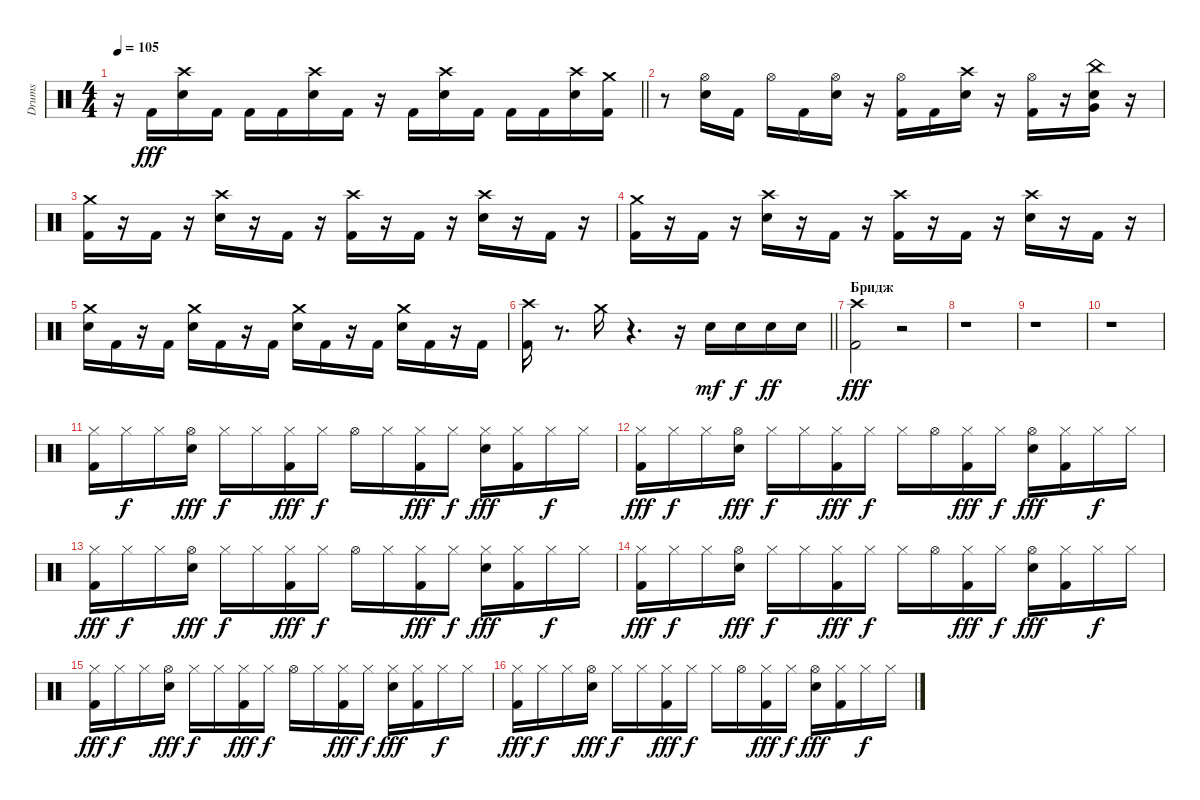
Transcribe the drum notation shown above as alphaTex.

\track ("Drums" "Drums") {instrument percussion}
\staff {score}
\articulation defaults
\ts (4 4)
\tempo 105
\clef neutral
\barLineRight lightlight
\ks c
r.16{dy fff} "Kick (hit) 2".16 ("Electric Snare (hit)" "Crash high (hit)").16 "Kick (hit) 2".16 "Kick (hit) 2".16 "Kick (hit) 2".16 ("Electric Snare (hit)" "Crash high (hit)").16 "Kick (hit) 2".16 r.16 "Kick (hit) 2".16 ("Electric Snare (hit)" "Crash high (hit)").16 "Kick (hit) 2".16 "Kick (hit) 2".16 "Kick (hit) 2".16 ("Electric Snare (hit)" "Crash high (hit)").16 ("Kick (hit) 2" "Crash medium (hit)").16 |
r.8 ("Electric Snare (hit)" "Hi-Hat (open)").16 "Kick (hit) 2".16 "Hi-Hat (open)".16 "Kick (hit) 2".16 ("Electric Snare (hit)" "Hi-Hat (open)").16 r.16 ("Kick (hit) 2" "Hi-Hat (open)").16 "Kick (hit) 2".16 ("Electric Snare (hit)" "Crash high (hit)").16 r.16 ("Kick (hit) 2" "Hi-Hat (open)").16 r.16 ("Electric Snare (hit)" "Very Low Tom (hit)" "China (hit)").16 r.16 |
("Kick (hit) 2" "Crash medium (hit)").16 r.16 "Kick (hit) 2".16 r.16 ("Electric Snare (hit)" "Crash high (hit)").16 r.16 "Kick (hit) 2".16 r.16 ("Kick (hit) 2" "Crash high (hit)").16 r.16 "Kick (hit) 2".16 r.16 ("Electric Snare (hit)" "Crash high (hit)").16 r.16 "Kick (hit) 2".16 r.16 |
("Kick (hit) 2" "Crash medium (hit)").16 r.16 "Kick (hit) 2".16 r.16 ("Electric Snare (hit)" "Crash high (hit)").16 r.16 "Kick (hit) 2".16 r.16 ("Kick (hit) 2" "Crash high (hit)").16 r.16 "Kick (hit) 2".16 r.16 ("Electric Snare (hit)" "Crash high (hit)").16 r.16 "Kick (hit) 2".16 r.16 |
("Electric Snare (hit)" "Crash medium (hit)").16 "Kick (hit) 2".16 r.16 "Kick (hit) 2".16 ("Electric Snare (hit)" "Crash medium (hit)").16 "Kick (hit) 2".16 r.16 "Kick (hit) 2".16 ("Electric Snare (hit)" "Crash medium (hit)").16 "Kick (hit) 2".16 r.16 "Kick (hit) 2".16 ("Electric Snare (hit)" "Crash medium (hit)").16 "Kick (hit) 2".16 r.16 "Kick (hit) 2".16 |
\barLineRight lightlight
("Kick (hit) 2" "Crash high (hit)").16 r.8{d} "Crash medium (hit)".16 r.4{d} r.16 "Electric Snare (hit)".16{dy mf} "Electric Snare (hit)".16{dy f} "Electric Snare (hit)".16{dy ff} "Electric Snare (hit)".16 |
\section ("" "Бридж")
("Kick (hit) 2" "Crash high (hit)").2{dy fff} r.2 |
r.1 |
r.1 |
r.1 |
("Kick (hit) 2" "Hi-Hat (closed)").16 "Hi-Hat (closed)".16{dy f} "Hi-Hat (closed)".16 ("Electric Snare (hit)" "Hi-Hat (open)").16{dy fff} "Hi-Hat (closed)".16{dy f} "Hi-Hat (closed)".16 ("Kick (hit) 2" "Hi-Hat (closed)").16{dy fff} "Hi-Hat (closed)".16{dy f} "Hi-Hat (open)".16 "Hi-Hat (closed)".16 ("Kick (hit) 2" "Hi-Hat (closed)").16{dy fff} "Hi-Hat (closed)".16{dy f} ("Electric Snare (hit)" "Hi-Hat (closed)").16{dy fff} ("Kick (hit) 2" "Hi-Hat (closed)").16 "Hi-Hat (closed)".16{dy f} "Hi-Hat (closed)".16 |
("Kick (hit) 2" "Hi-Hat (closed)").16{dy fff} "Hi-Hat (closed)".16{dy f} "Hi-Hat (closed)".16 ("Electric Snare (hit)" "Hi-Hat (open)").16{dy fff} "Hi-Hat (closed)".16{dy f} "Hi-Hat (closed)".16 ("Kick (hit) 2" "Hi-Hat (closed)").16{dy fff} "Hi-Hat (closed)".16{dy f} "Hi-Hat (closed)".16 "Hi-Hat (open)".16 ("Kick (hit) 2" "Hi-Hat (closed)").16{dy fff} "Hi-Hat (closed)".16{dy f} ("Electric Snare (hit)" "Hi-Hat (open)").16{dy fff} ("Kick (hit) 2" "Hi-Hat (closed)").16 "Hi-Hat (closed)".16{dy f} "Hi-Hat (closed)".16 |
("Kick (hit) 2" "Hi-Hat (closed)").16{dy fff} "Hi-Hat (closed)".16{dy f} "Hi-Hat (closed)".16 ("Electric Snare (hit)" "Hi-Hat (open)").16{dy fff} "Hi-Hat (closed)".16{dy f} "Hi-Hat (closed)".16 ("Kick (hit) 2" "Hi-Hat (closed)").16{dy fff} "Hi-Hat (closed)".16{dy f} "Hi-Hat (open)".16 "Hi-Hat (closed)".16 ("Kick (hit) 2" "Hi-Hat (closed)").16{dy fff} "Hi-Hat (closed)".16{dy f} ("Electric Snare (hit)" "Hi-Hat (closed)").16{dy fff} ("Kick (hit) 2" "Hi-Hat (closed)").16 "Hi-Hat (closed)".16{dy f} "Hi-Hat (closed)".16 |
("Kick (hit) 2" "Hi-Hat (closed)").16{dy fff} "Hi-Hat (closed)".16{dy f} "Hi-Hat (closed)".16 ("Electric Snare (hit)" "Hi-Hat (open)").16{dy fff} "Hi-Hat (closed)".16{dy f} "Hi-Hat (closed)".16 ("Kick (hit) 2" "Hi-Hat (closed)").16{dy fff} "Hi-Hat (closed)".16{dy f} "Hi-Hat (closed)".16 "Hi-Hat (open)".16 ("Kick (hit) 2" "Hi-Hat (closed)").16{dy fff} "Hi-Hat (closed)".16{dy f} ("Electric Snare (hit)" "Hi-Hat (open)").16{dy fff} ("Kick (hit) 2" "Hi-Hat (closed)").16 "Hi-Hat (closed)".16{dy f} "Hi-Hat (closed)".16 |
("Kick (hit) 2" "Hi-Hat (closed)").16{dy fff} "Hi-Hat (closed)".16{dy f} "Hi-Hat (closed)".16 ("Electric Snare (hit)" "Hi-Hat (open)").16{dy fff} "Hi-Hat (closed)".16{dy f} "Hi-Hat (closed)".16 ("Kick (hit) 2" "Hi-Hat (closed)").16{dy fff} "Hi-Hat (closed)".16{dy f} "Hi-Hat (open)".16 "Hi-Hat (closed)".16 ("Kick (hit) 2" "Hi-Hat (closed)").16{dy fff} "Hi-Hat (closed)".16{dy f} ("Electric Snare (hit)" "Hi-Hat (closed)").16{dy fff} ("Kick (hit) 2" "Hi-Hat (closed)").16 "Hi-Hat (closed)".16{dy f} "Hi-Hat (closed)".16 |
("Kick (hit) 2" "Hi-Hat (closed)").16{dy fff} "Hi-Hat (closed)".16{dy f} "Hi-Hat (closed)".16 ("Electric Snare (hit)" "Hi-Hat (open)").16{dy fff} "Hi-Hat (closed)".16{dy f} "Hi-Hat (closed)".16 ("Kick (hit) 2" "Hi-Hat (closed)").16{dy fff} "Hi-Hat (closed)".16{dy f} "Hi-Hat (closed)".16 "Hi-Hat (open)".16 ("Kick (hit) 2" "Hi-Hat (closed)").16{dy fff} "Hi-Hat (closed)".16{dy f} ("Electric Snare (hit)" "Hi-Hat (open)").16{dy fff} ("Kick (hit) 2" "Hi-Hat (closed)").16 "Hi-Hat (closed)".16{dy f} "Hi-Hat (closed)".16
